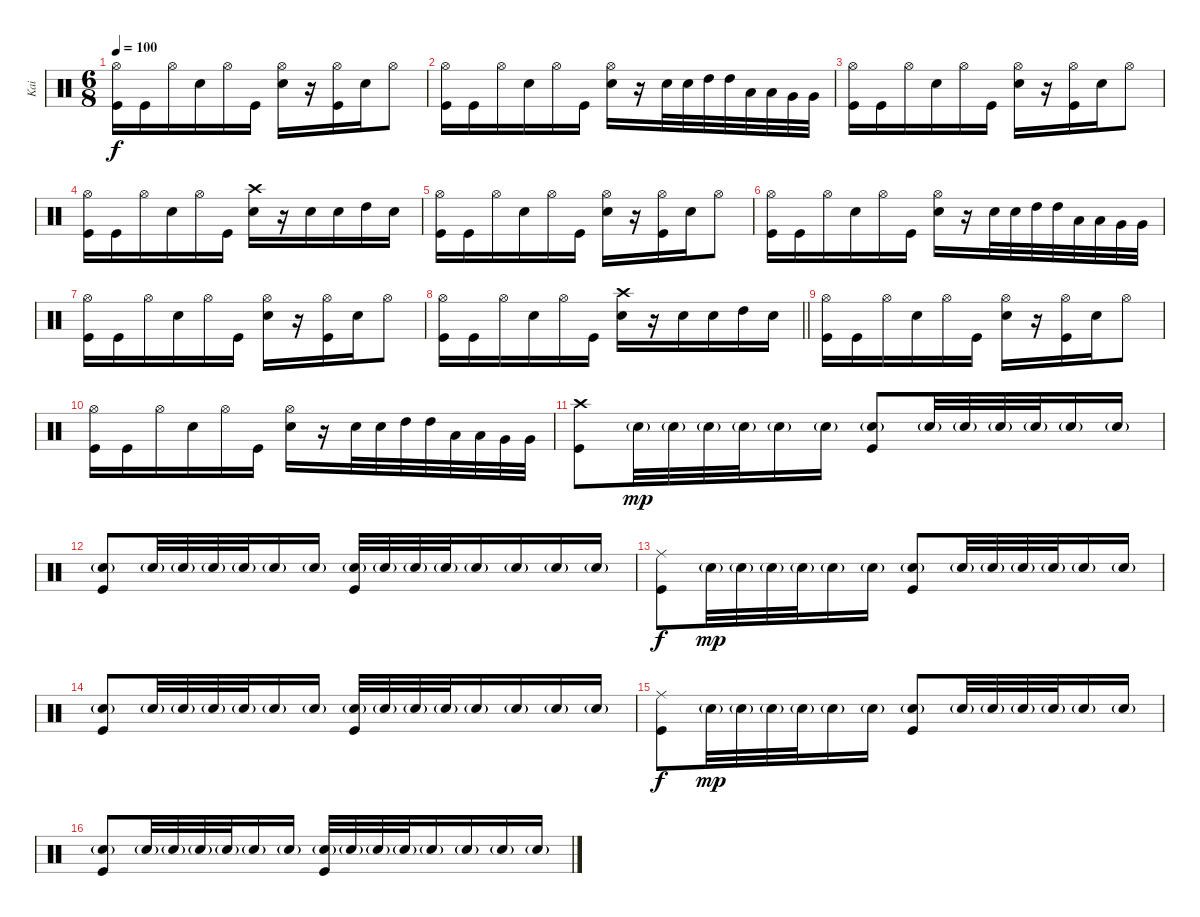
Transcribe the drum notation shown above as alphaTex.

\track ("Kai" "Kai") {instrument percussion}
\staff {score}
\articulation defaults
\ts (6 8)
\tempo 100
\clef neutral
\ks c
("Hi-Hat (open)" "Kick (hit)").16{dy f} "Kick (hit)".16 "Hi-Hat (open)".16 "Snare (hit) 2".16 "Hi-Hat (open)".16 "Kick (hit)".16 ("Hi-Hat (open)" "Snare (hit) 2").16 r.16 ("Hi-Hat (open)" "Kick (hit)").16 "Snare (hit) 2".16 "Hi-Hat (open)".8 |
("Hi-Hat (open)" "Kick (hit)").16 "Kick (hit)".16 "Hi-Hat (open)".16 "Snare (hit) 2".16 "Hi-Hat (open)".16 "Kick (hit)".16 ("Hi-Hat (open)" "Snare (hit) 2").16 r.16 "Snare (hit) 2".32 "Snare (hit) 2".32 "High Tom (hit)".32 "High Tom (hit)".32 "Low Tom (hit)".32 "Low Tom (hit)".32 "Very Low Tom (hit)".32 "Very Low Tom (hit)".32 |
("Hi-Hat (open)" "Kick (hit)").16 "Kick (hit)".16 "Hi-Hat (open)".16 "Snare (hit) 2".16 "Hi-Hat (open)".16 "Kick (hit)".16 ("Hi-Hat (open)" "Snare (hit) 2").16 r.16 ("Hi-Hat (open)" "Kick (hit)").16 "Snare (hit) 2".16 "Hi-Hat (open)".8 |
("Hi-Hat (open)" "Kick (hit)").16 "Kick (hit)".16 "Hi-Hat (open)".16 "Snare (hit) 2".16 "Hi-Hat (open)".16 "Kick (hit)".16 ("Crash high (hit)" "Snare (hit) 2").16 r.16 "Snare (hit) 2".16 "Snare (hit) 2".16 "High Tom (hit)".16 "Snare (hit) 2".16 |
("Hi-Hat (open)" "Kick (hit)").16 "Kick (hit)".16 "Hi-Hat (open)".16 "Snare (hit) 2".16 "Hi-Hat (open)".16 "Kick (hit)".16 ("Hi-Hat (open)" "Snare (hit) 2").16 r.16 ("Hi-Hat (open)" "Kick (hit)").16 "Snare (hit) 2".16 "Hi-Hat (open)".8 |
("Hi-Hat (open)" "Kick (hit)").16 "Kick (hit)".16 "Hi-Hat (open)".16 "Snare (hit) 2".16 "Hi-Hat (open)".16 "Kick (hit)".16 ("Hi-Hat (open)" "Snare (hit) 2").16 r.16 "Snare (hit) 2".32 "Snare (hit) 2".32 "High Tom (hit)".32 "High Tom (hit)".32 "Low Tom (hit)".32 "Low Tom (hit)".32 "Very Low Tom (hit)".32 "Very Low Tom (hit)".32 |
("Hi-Hat (open)" "Kick (hit)").16 "Kick (hit)".16 "Hi-Hat (open)".16 "Snare (hit) 2".16 "Hi-Hat (open)".16 "Kick (hit)".16 ("Hi-Hat (open)" "Snare (hit) 2").16 r.16 ("Hi-Hat (open)" "Kick (hit)").16 "Snare (hit) 2".16 "Hi-Hat (open)".8 |
\barLineRight lightlight
("Hi-Hat (open)" "Kick (hit)").16 "Kick (hit)".16 "Hi-Hat (open)".16 "Snare (hit) 2".16 "Hi-Hat (open)".16 "Kick (hit)".16 ("Crash high (hit)" "Snare (hit) 2").16 r.16 "Snare (hit) 2".16 "Snare (hit) 2".16 "High Tom (hit)".16 "Snare (hit) 2".16 |
("Hi-Hat (open)" "Kick (hit)").16 "Kick (hit)".16 "Hi-Hat (open)".16 "Snare (hit) 2".16 "Hi-Hat (open)".16 "Kick (hit)".16 ("Hi-Hat (open)" "Snare (hit) 2").16 r.16 ("Hi-Hat (open)" "Kick (hit)").16 "Snare (hit) 2".16 "Hi-Hat (open)".8 |
("Hi-Hat (open)" "Kick (hit)").16 "Kick (hit)".16 "Hi-Hat (open)".16 "Snare (hit) 2".16 "Hi-Hat (open)".16 "Kick (hit)".16 ("Hi-Hat (open)" "Snare (hit) 2").16 r.16 "Snare (hit) 2".32 "Snare (hit) 2".32 "High Tom (hit)".32 "High Tom (hit)".32 "Low Tom (hit)".32 "Low Tom (hit)".32 "Very Low Tom (hit)".32 "Very Low Tom (hit)".32 |
("Crash high (hit)" "Kick (hit)").8 "Snare (hit) 2"{g}.32{dy mp} "Snare (hit) 2"{g}.32 "Snare (hit) 2"{g}.32 "Snare (hit) 2"{g}.32 "Snare (hit) 2"{g}.16 "Snare (hit) 2"{g}.16 ("Snare (hit) 2"{g} "Kick (hit)").8 "Snare (hit) 2"{g}.32 "Snare (hit) 2"{g}.32 "Snare (hit) 2"{g}.32 "Snare (hit) 2"{g}.32 "Snare (hit) 2"{g}.16 "Snare (hit) 2"{g}.16 |
("Snare (hit) 2"{g} "Kick (hit)").8 "Snare (hit) 2"{g}.32 "Snare (hit) 2"{g}.32 "Snare (hit) 2"{g}.32 "Snare (hit) 2"{g}.32 "Snare (hit) 2"{g}.16 "Snare (hit) 2"{g}.16 ("Snare (hit) 2"{g} "Kick (hit)").32 "Snare (hit) 2"{g}.32 "Snare (hit) 2"{g}.32 "Snare (hit) 2"{g}.32 "Snare (hit) 2"{g}.16 "Snare (hit) 2"{g}.16 "Snare (hit) 2"{g}.16 "Snare (hit) 2"{g}.16 |
("Ride (middle)" "Kick (hit)").8{dy f} "Snare (hit) 2"{g}.32{dy mp} "Snare (hit) 2"{g}.32 "Snare (hit) 2"{g}.32 "Snare (hit) 2"{g}.32 "Snare (hit) 2"{g}.16 "Snare (hit) 2"{g}.16 ("Snare (hit) 2"{g} "Kick (hit)").8 "Snare (hit) 2"{g}.32 "Snare (hit) 2"{g}.32 "Snare (hit) 2"{g}.32 "Snare (hit) 2"{g}.32 "Snare (hit) 2"{g}.16 "Snare (hit) 2"{g}.16 |
("Snare (hit) 2"{g} "Kick (hit)").8 "Snare (hit) 2"{g}.32 "Snare (hit) 2"{g}.32 "Snare (hit) 2"{g}.32 "Snare (hit) 2"{g}.32 "Snare (hit) 2"{g}.16 "Snare (hit) 2"{g}.16 ("Snare (hit) 2"{g} "Kick (hit)").32 "Snare (hit) 2"{g}.32 "Snare (hit) 2"{g}.32 "Snare (hit) 2"{g}.32 "Snare (hit) 2"{g}.16 "Snare (hit) 2"{g}.16 "Snare (hit) 2"{g}.16 "Snare (hit) 2"{g}.16 |
("Ride (middle)" "Kick (hit)").8{dy f} "Snare (hit) 2"{g}.32{dy mp} "Snare (hit) 2"{g}.32 "Snare (hit) 2"{g}.32 "Snare (hit) 2"{g}.32 "Snare (hit) 2"{g}.16 "Snare (hit) 2"{g}.16 ("Snare (hit) 2"{g} "Kick (hit)").8 "Snare (hit) 2"{g}.32 "Snare (hit) 2"{g}.32 "Snare (hit) 2"{g}.32 "Snare (hit) 2"{g}.32 "Snare (hit) 2"{g}.16 "Snare (hit) 2"{g}.16 |
("Snare (hit) 2"{g} "Kick (hit)").8 "Snare (hit) 2"{g}.32 "Snare (hit) 2"{g}.32 "Snare (hit) 2"{g}.32 "Snare (hit) 2"{g}.32 "Snare (hit) 2"{g}.16 "Snare (hit) 2"{g}.16 ("Snare (hit) 2"{g} "Kick (hit)").32 "Snare (hit) 2"{g}.32 "Snare (hit) 2"{g}.32 "Snare (hit) 2"{g}.32 "Snare (hit) 2"{g}.16 "Snare (hit) 2"{g}.16 "Snare (hit) 2"{g}.16 "Snare (hit) 2"{g}.16
